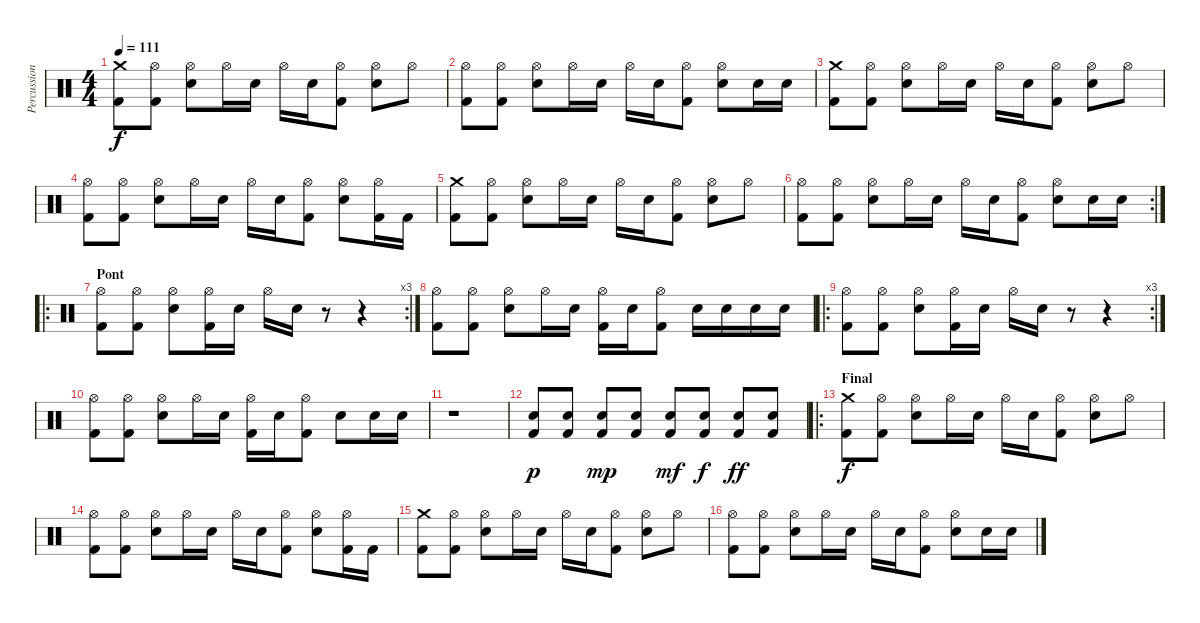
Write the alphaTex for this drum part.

\track ("Percussions" "Percussion") {instrument percussion}
\staff {score}
\articulation defaults
\ts (4 4)
\tempo 111
\clef neutral
\ks c
("Crash medium (hit)" "Kick (hit) 2").8{dy f} ("Hi-Hat (open)" "Kick (hit) 2").8 ("Hi-Hat (open)" "Electric Snare (hit)").8 "Hi-Hat (open)".16 "Electric Snare (hit)".16 "Hi-Hat (open)".16 "Electric Snare (hit)".16 ("Hi-Hat (open)" "Kick (hit) 2").8 ("Hi-Hat (open)" "Electric Snare (hit)").8 "Hi-Hat (open)".8 |
("Hi-Hat (open)" "Kick (hit) 2").8 ("Hi-Hat (open)" "Kick (hit) 2").8 ("Hi-Hat (open)" "Electric Snare (hit)").8 "Hi-Hat (open)".16 "Electric Snare (hit)".16 "Hi-Hat (open)".16 "Electric Snare (hit)".16 ("Hi-Hat (open)" "Kick (hit) 2").8 ("Hi-Hat (open)" "Electric Snare (hit)").8 "Electric Snare (hit)".16 "Electric Snare (hit)".16 |
("Crash medium (hit)" "Kick (hit) 2").8 ("Hi-Hat (open)" "Kick (hit) 2").8 ("Hi-Hat (open)" "Electric Snare (hit)").8 "Hi-Hat (open)".16 "Electric Snare (hit)".16 "Hi-Hat (open)".16 "Electric Snare (hit)".16 ("Hi-Hat (open)" "Kick (hit) 2").8 ("Hi-Hat (open)" "Electric Snare (hit)").8 "Hi-Hat (open)".8 |
("Hi-Hat (open)" "Kick (hit) 2").8 ("Hi-Hat (open)" "Kick (hit) 2").8 ("Hi-Hat (open)" "Electric Snare (hit)").8 "Hi-Hat (open)".16 "Electric Snare (hit)".16 "Hi-Hat (open)".16 "Electric Snare (hit)".16 ("Hi-Hat (open)" "Kick (hit) 2").8 ("Hi-Hat (open)" "Electric Snare (hit)").8 ("Hi-Hat (open)" "Kick (hit) 2").16 "Kick (hit) 2".16 |
("Crash medium (hit)" "Kick (hit) 2").8 ("Hi-Hat (open)" "Kick (hit) 2").8 ("Hi-Hat (open)" "Electric Snare (hit)").8 "Hi-Hat (open)".16 "Electric Snare (hit)".16 "Hi-Hat (open)".16 "Electric Snare (hit)".16 ("Hi-Hat (open)" "Kick (hit) 2").8 ("Hi-Hat (open)" "Electric Snare (hit)").8 "Hi-Hat (open)".8 |
\rc 2
("Hi-Hat (open)" "Kick (hit) 2").8 ("Hi-Hat (open)" "Kick (hit) 2").8 ("Hi-Hat (open)" "Electric Snare (hit)").8 "Hi-Hat (open)".16 "Electric Snare (hit)".16 "Hi-Hat (open)".16 "Electric Snare (hit)".16 ("Hi-Hat (open)" "Kick (hit) 2").8 ("Hi-Hat (open)" "Electric Snare (hit)").8 "Electric Snare (hit)".16 "Electric Snare (hit)".16 |
\ro
\rc 3
\section ("" "Pont")
("Hi-Hat (open)" "Kick (hit) 2").8 ("Hi-Hat (open)" "Kick (hit) 2").8 ("Hi-Hat (open)" "Electric Snare (hit)").8 ("Hi-Hat (open)" "Kick (hit) 2").16 "Electric Snare (hit)".16 "Hi-Hat (open)".16 "Electric Snare (hit)".16 r.8 r.4 |
("Hi-Hat (open)" "Kick (hit) 2").8 ("Hi-Hat (open)" "Kick (hit) 2").8 ("Hi-Hat (open)" "Electric Snare (hit)").8 "Hi-Hat (open)".16 "Electric Snare (hit)".16 ("Hi-Hat (open)" "Kick (hit) 2").16 "Electric Snare (hit)".16 ("Hi-Hat (open)" "Kick (hit) 2").8 "Electric Snare (hit)".16 "Electric Snare (hit)".16 "Electric Snare (hit)".16 "Electric Snare (hit)".16 |
\ro
\rc 3
("Hi-Hat (open)" "Kick (hit) 2").8 ("Hi-Hat (open)" "Kick (hit) 2").8 ("Hi-Hat (open)" "Electric Snare (hit)").8 ("Hi-Hat (open)" "Kick (hit) 2").16 "Electric Snare (hit)".16 "Hi-Hat (open)".16 "Electric Snare (hit)".16 r.8 r.4 |
("Hi-Hat (open)" "Kick (hit) 2").8 ("Hi-Hat (open)" "Kick (hit) 2").8 ("Hi-Hat (open)" "Electric Snare (hit)").8 "Hi-Hat (open)".16 "Electric Snare (hit)".16 ("Hi-Hat (open)" "Kick (hit) 2").16 "Electric Snare (hit)".16 ("Hi-Hat (open)" "Kick (hit) 2").8 "Electric Snare (hit)".8 "Electric Snare (hit)".16 "Electric Snare (hit)".16 |
r.1 |
("Snare (hit) 2" "Kick (hit) 2").8{dy p} ("Snare (hit) 2" "Kick (hit) 2").8 ("Snare (hit) 2" "Kick (hit) 2").8{dy mp} ("Snare (hit) 2" "Kick (hit) 2").8 ("Snare (hit) 2" "Kick (hit) 2").8{dy mf} ("Snare (hit) 2" "Kick (hit) 2").8{dy f} ("Snare (hit) 2" "Kick (hit) 2").8{dy ff} ("Snare (hit) 2" "Kick (hit) 2").8 |
\ro
\section ("" "Final")
("Crash medium (hit)" "Kick (hit) 2").8{dy f volume 14} ("Hi-Hat (open)" "Kick (hit) 2").8 ("Hi-Hat (open)" "Electric Snare (hit)").8 "Hi-Hat (open)".16 "Electric Snare (hit)".16 "Hi-Hat (open)".16 "Electric Snare (hit)".16 ("Hi-Hat (open)" "Kick (hit) 2").8 ("Hi-Hat (open)" "Electric Snare (hit)").8 "Hi-Hat (open)".8 |
("Hi-Hat (open)" "Kick (hit) 2").8 ("Hi-Hat (open)" "Kick (hit) 2").8 ("Hi-Hat (open)" "Electric Snare (hit)").8 "Hi-Hat (open)".16 "Electric Snare (hit)".16 "Hi-Hat (open)".16 "Electric Snare (hit)".16 ("Hi-Hat (open)" "Kick (hit) 2").8 ("Hi-Hat (open)" "Electric Snare (hit)").8 ("Hi-Hat (open)" "Kick (hit) 2").16 "Kick (hit) 2".16 |
("Crash medium (hit)" "Kick (hit) 2").8 ("Hi-Hat (open)" "Kick (hit) 2").8 ("Hi-Hat (open)" "Electric Snare (hit)").8 "Hi-Hat (open)".16 "Electric Snare (hit)".16 "Hi-Hat (open)".16 "Electric Snare (hit)".16 ("Hi-Hat (open)" "Kick (hit) 2").8 ("Hi-Hat (open)" "Electric Snare (hit)").8 "Hi-Hat (open)".8 |
("Hi-Hat (open)" "Kick (hit) 2").8 ("Hi-Hat (open)" "Kick (hit) 2").8 ("Hi-Hat (open)" "Electric Snare (hit)").8 "Hi-Hat (open)".16 "Electric Snare (hit)".16 "Hi-Hat (open)".16 "Electric Snare (hit)".16 ("Hi-Hat (open)" "Kick (hit) 2").8 ("Hi-Hat (open)" "Electric Snare (hit)").8 "Electric Snare (hit)".16 "Electric Snare (hit)".16
